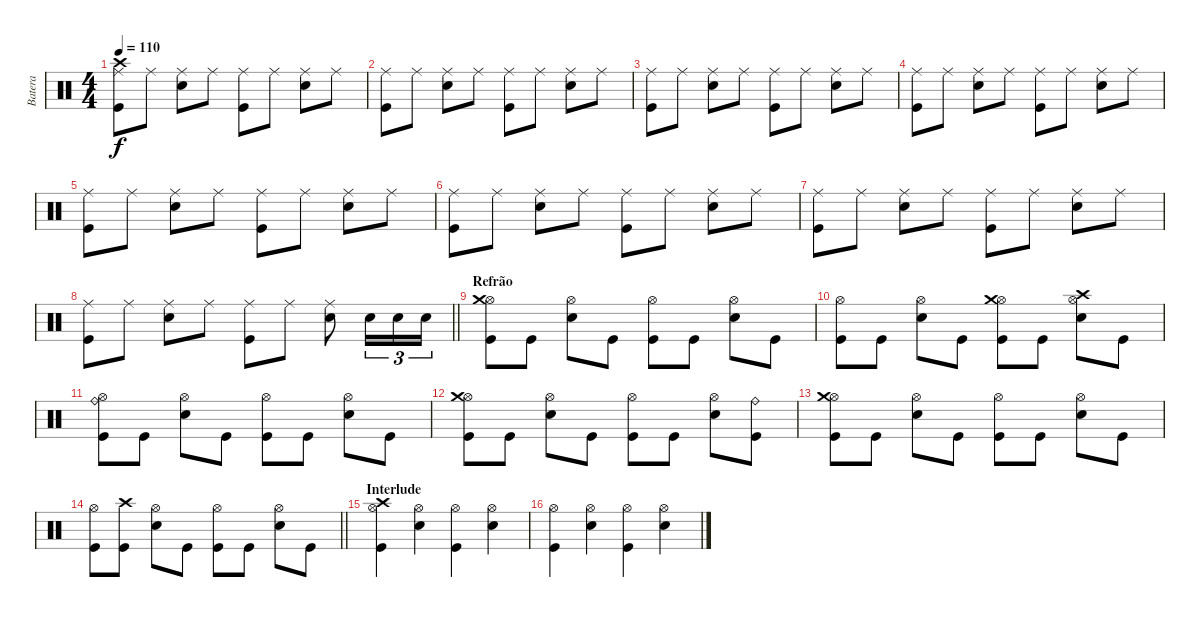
\track ("Batera" "Batera") {instrument percussion}
\staff {score}
\articulation defaults
\ts (4 4)
\tempo 110
\clef neutral
\ks c
("Ride (middle)" "Kick (hit)" "Crash high (hit)").8{dy f} "Ride (middle)".8 ("Ride (middle)" "Snare (hit) 2").8 "Ride (middle)".8 ("Ride (middle)" "Kick (hit)").8 "Ride (middle)".8 ("Ride (middle)" "Snare (hit) 2").8 "Ride (middle)".8 |
("Ride (middle)" "Kick (hit)").8 "Ride (middle)".8 ("Ride (middle)" "Snare (hit) 2").8 "Ride (middle)".8 ("Ride (middle)" "Kick (hit)").8 "Ride (middle)".8 ("Ride (middle)" "Snare (hit) 2").8 "Ride (middle)".8 |
("Ride (middle)" "Kick (hit)").8 "Ride (middle)".8 ("Ride (middle)" "Snare (hit) 2").8 "Ride (middle)".8 ("Ride (middle)" "Kick (hit)").8 "Ride (middle)".8 ("Ride (middle)" "Snare (hit) 2").8 "Ride (middle)".8 |
("Ride (middle)" "Kick (hit)").8 "Ride (middle)".8 ("Ride (middle)" "Snare (hit) 2").8 "Ride (middle)".8 ("Ride (middle)" "Kick (hit)").8 "Ride (middle)".8 ("Ride (middle)" "Snare (hit) 2").8 "Ride (middle)".8 |
("Ride (middle)" "Kick (hit)").8 "Ride (middle)".8 ("Ride (middle)" "Snare (hit) 2").8 "Ride (middle)".8 ("Ride (middle)" "Kick (hit)").8 "Ride (middle)".8 ("Ride (middle)" "Snare (hit) 2").8 "Ride (middle)".8 |
("Ride (middle)" "Kick (hit)").8 "Ride (middle)".8 ("Ride (middle)" "Snare (hit) 2").8 "Ride (middle)".8 ("Ride (middle)" "Kick (hit)").8 "Ride (middle)".8 ("Ride (middle)" "Snare (hit) 2").8 "Ride (middle)".8 |
("Ride (middle)" "Kick (hit)").8 "Ride (middle)".8 ("Ride (middle)" "Snare (hit) 2").8 "Ride (middle)".8 ("Ride (middle)" "Kick (hit)").8 "Ride (middle)".8 ("Ride (middle)" "Snare (hit) 2").8 "Ride (middle)".8 |
\barLineRight lightlight
("Ride (middle)" "Kick (hit)").8 "Ride (middle)".8 ("Ride (middle)" "Snare (hit) 2").8 "Ride (middle)".8 ("Ride (middle)" "Kick (hit)").8 "Ride (middle)".8 ("Ride (middle)" "Snare (hit) 2").8 "Snare (hit) 2".16{tu (3 2)} "Snare (hit) 2".16{tu (3 2)} "Snare (hit) 2".16{tu (3 2)} |
\section ("" "Refrão")
("Hi-Hat (open)" "Kick (hit)" "Crash medium (hit)").8 "Kick (hit)".8 ("Hi-Hat (open)" "Snare (hit) 2").8 "Kick (hit)".8 ("Hi-Hat (open)" "Kick (hit)").8 "Kick (hit)".8 ("Hi-Hat (open)" "Snare (hit) 2").8 "Kick (hit)".8 |
("Hi-Hat (open)" "Kick (hit)").8 "Kick (hit)".8 ("Hi-Hat (open)" "Snare (hit) 2").8 "Kick (hit)".8 ("Hi-Hat (open)" "Kick (hit)" "Crash medium (hit)").8 "Kick (hit)".8 ("Hi-Hat (open)" "Snare (hit) 2" "Crash high (hit)").8 "Kick (hit)".8 |
("Hi-Hat (open)" "Kick (hit)" "Ride (bell)").8 "Kick (hit)".8 ("Hi-Hat (open)" "Snare (hit) 2").8 "Kick (hit)".8 ("Hi-Hat (open)" "Kick (hit)").8 "Kick (hit)".8 ("Hi-Hat (open)" "Snare (hit) 2").8 "Kick (hit)".8 |
("Hi-Hat (open)" "Kick (hit)" "Crash medium (hit)").8 "Kick (hit)".8 ("Hi-Hat (open)" "Snare (hit) 2").8 "Kick (hit)".8 ("Hi-Hat (open)" "Kick (hit)").8 "Kick (hit)".8 ("Hi-Hat (open)" "Snare (hit) 2").8 ("Kick (hit)" "Ride (bell)").8 |
("Hi-Hat (open)" "Kick (hit)" "Crash medium (hit)").8 "Kick (hit)".8 ("Hi-Hat (open)" "Snare (hit) 2").8 "Kick (hit)".8 ("Hi-Hat (open)" "Kick (hit)").8 "Kick (hit)".8 ("Hi-Hat (open)" "Snare (hit) 2").8 "Kick (hit)".8 |
\barLineRight lightlight
("Hi-Hat (open)" "Kick (hit)").8 ("Kick (hit)" "Crash high (hit)").8 ("Hi-Hat (open)" "Snare (hit) 2").8 "Kick (hit)".8 ("Hi-Hat (open)" "Kick (hit)").8 "Kick (hit)".8 ("Hi-Hat (open)" "Snare (hit) 2").8 "Kick (hit)".8 |
\section ("" "Interlude")
("Hi-Hat (open)" "Kick (hit)" "Crash high (hit)").4 ("Hi-Hat (open)" "Snare (hit) 2").4 ("Hi-Hat (open)" "Kick (hit)").4 ("Hi-Hat (open)" "Snare (hit) 2").4 |
("Hi-Hat (open)" "Kick (hit)").4 ("Hi-Hat (open)" "Snare (hit) 2").4 ("Hi-Hat (open)" "Kick (hit)").4 ("Hi-Hat (open)" "Snare (hit) 2").4
